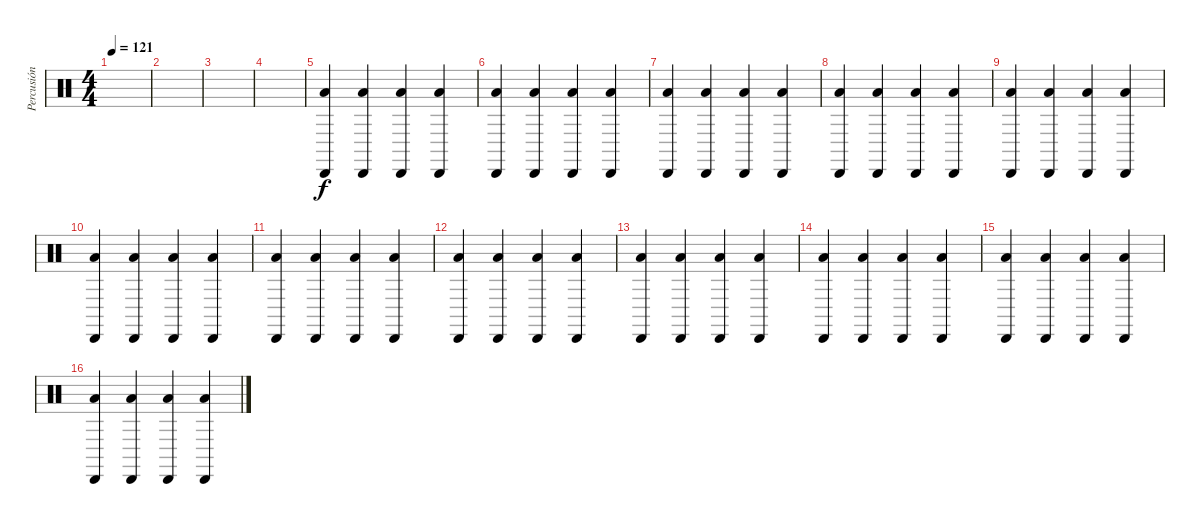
\track ("Percusión" "Percusión") {instrument percussion}
\staff {score}
\articulation defaults
\ts (4 4)
\tempo 121
\clef neutral
\ks c
|
|
|
|
("Low Tom (hit)" "Cabasa (hit)").4 ("Low Tom (hit)" "Cabasa (hit)").4 ("Low Tom (hit)" "Cabasa (hit)").4 ("Low Tom (hit)" "Cabasa (hit)").4 |
("Low Tom (hit)" "Cabasa (hit)").4 ("Low Tom (hit)" "Cabasa (hit)").4 ("Low Tom (hit)" "Cabasa (hit)").4 ("Low Tom (hit)" "Cabasa (hit)").4 |
("Low Tom (hit)" "Cabasa (hit)").4 ("Low Tom (hit)" "Cabasa (hit)").4 ("Low Tom (hit)" "Cabasa (hit)").4 ("Low Tom (hit)" "Cabasa (hit)").4 |
("Low Tom (hit)" "Cabasa (hit)").4 ("Low Tom (hit)" "Cabasa (hit)").4 ("Low Tom (hit)" "Cabasa (hit)").4 ("Low Tom (hit)" "Cabasa (hit)").4 |
("Low Tom (hit)" "Cabasa (hit)").4 ("Low Tom (hit)" "Cabasa (hit)").4 ("Low Tom (hit)" "Cabasa (hit)").4 ("Low Tom (hit)" "Cabasa (hit)").4 |
("Low Tom (hit)" "Cabasa (hit)").4 ("Low Tom (hit)" "Cabasa (hit)").4 ("Low Tom (hit)" "Cabasa (hit)").4 ("Low Tom (hit)" "Cabasa (hit)").4 |
("Low Tom (hit)" "Cabasa (hit)").4 ("Low Tom (hit)" "Cabasa (hit)").4 ("Low Tom (hit)" "Cabasa (hit)").4 ("Low Tom (hit)" "Cabasa (hit)").4 |
("Low Tom (hit)" "Cabasa (hit)").4 ("Low Tom (hit)" "Cabasa (hit)").4 ("Low Tom (hit)" "Cabasa (hit)").4 ("Low Tom (hit)" "Cabasa (hit)").4 |
("Low Tom (hit)" "Cabasa (hit)").4 ("Low Tom (hit)" "Cabasa (hit)").4 ("Low Tom (hit)" "Cabasa (hit)").4 ("Low Tom (hit)" "Cabasa (hit)").4 |
("Low Tom (hit)" "Cabasa (hit)").4 ("Low Tom (hit)" "Cabasa (hit)").4 ("Low Tom (hit)" "Cabasa (hit)").4 ("Low Tom (hit)" "Cabasa (hit)").4 |
("Low Tom (hit)" "Cabasa (hit)").4 ("Low Tom (hit)" "Cabasa (hit)").4 ("Low Tom (hit)" "Cabasa (hit)").4 ("Low Tom (hit)" "Cabasa (hit)").4 |
("Low Tom (hit)" "Cabasa (hit)").4 ("Low Tom (hit)" "Cabasa (hit)").4 ("Low Tom (hit)" "Cabasa (hit)").4 ("Low Tom (hit)" "Cabasa (hit)").4
